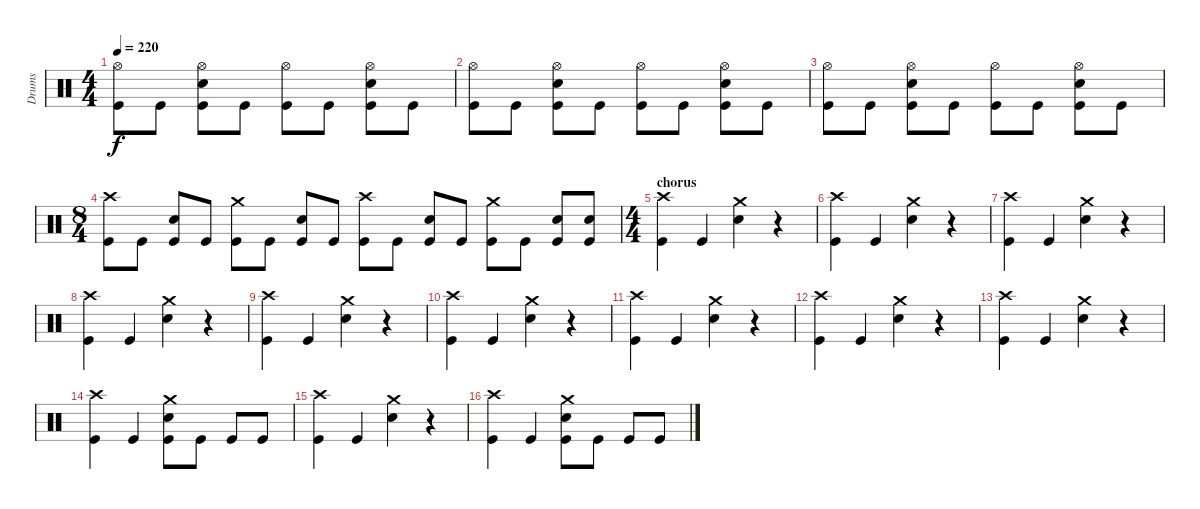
\track ("Drums" "Drums") {instrument percussion}
\staff {score}
\articulation defaults
\ts (4 4)
\tempo 220
\clef neutral
\ks c
("Hi-Hat (open)" "Kick (hit)").8{dy f} "Kick (hit)".8 ("Hi-Hat (open)" "Electric Snare (hit)" "Kick (hit)").8 "Kick (hit)".8 ("Hi-Hat (open)" "Kick (hit)").8 "Kick (hit)".8 ("Hi-Hat (open)" "Electric Snare (hit)" "Kick (hit)").8 "Kick (hit)".8 |
("Hi-Hat (open)" "Kick (hit)").8 "Kick (hit)".8 ("Hi-Hat (open)" "Electric Snare (hit)" "Kick (hit)").8 "Kick (hit)".8 ("Hi-Hat (open)" "Kick (hit)").8 "Kick (hit)".8 ("Hi-Hat (open)" "Electric Snare (hit)" "Kick (hit)").8 "Kick (hit)".8 |
("Hi-Hat (open)" "Kick (hit)").8 "Kick (hit)".8 ("Hi-Hat (open)" "Electric Snare (hit)" "Kick (hit)").8 "Kick (hit)".8 ("Hi-Hat (open)" "Kick (hit)").8 "Kick (hit)".8 ("Hi-Hat (open)" "Electric Snare (hit)" "Kick (hit)").8 "Kick (hit)".8 |
\ts (8 4)
("Crash high (hit)" "Kick (hit)").8 "Kick (hit)".8 ("Electric Snare (hit)" "Kick (hit)").8 "Kick (hit)".8 ("Crash medium (hit)" "Kick (hit)").8 "Kick (hit)".8 ("Electric Snare (hit)" "Kick (hit)").8 "Kick (hit)".8 ("Crash high (hit)" "Kick (hit)").8 "Kick (hit)".8 ("Electric Snare (hit)" "Kick (hit)").8 "Kick (hit)".8 ("Crash medium (hit)" "Kick (hit)").8 "Kick (hit)".8 ("Electric Snare (hit)" "Kick (hit)").8 ("Electric Snare (hit)" "Kick (hit)").8 |
\ts (4 4)
\section ("" "chorus")
("Crash high (hit)" "Kick (hit)").4 "Kick (hit)".4 ("Crash medium (hit)" "Electric Snare (hit)").4 r.4 |
("Crash high (hit)" "Kick (hit)").4 "Kick (hit)".4 ("Crash medium (hit)" "Electric Snare (hit)").4 r.4 |
("Crash high (hit)" "Kick (hit)").4 "Kick (hit)".4 ("Crash medium (hit)" "Electric Snare (hit)").4 r.4 |
("Crash high (hit)" "Kick (hit)").4 "Kick (hit)".4 ("Crash medium (hit)" "Electric Snare (hit)").4 r.4 |
("Crash high (hit)" "Kick (hit)").4 "Kick (hit)".4 ("Crash medium (hit)" "Electric Snare (hit)").4 r.4 |
("Crash high (hit)" "Kick (hit)").4 "Kick (hit)".4 ("Crash medium (hit)" "Electric Snare (hit)").4 r.4 |
("Crash high (hit)" "Kick (hit)").4 "Kick (hit)".4 ("Crash medium (hit)" "Electric Snare (hit)").4 r.4 |
("Crash high (hit)" "Kick (hit)").4 "Kick (hit)".4 ("Crash medium (hit)" "Electric Snare (hit)").4 r.4 |
("Crash high (hit)" "Kick (hit)").4 "Kick (hit)".4 ("Crash medium (hit)" "Electric Snare (hit)").4 r.4 |
("Crash high (hit)" "Kick (hit)").4 "Kick (hit)".4 ("Crash medium (hit)" "Electric Snare (hit)" "Kick (hit)").8 "Kick (hit)".8 "Kick (hit)".8 "Kick (hit)".8 |
("Crash high (hit)" "Kick (hit)").4 "Kick (hit)".4 ("Crash medium (hit)" "Electric Snare (hit)").4 r.4 |
("Crash high (hit)" "Kick (hit)").4 "Kick (hit)".4 ("Crash medium (hit)" "Electric Snare (hit)" "Kick (hit)").8 "Kick (hit)".8 "Kick (hit)".8 "Kick (hit)".8
